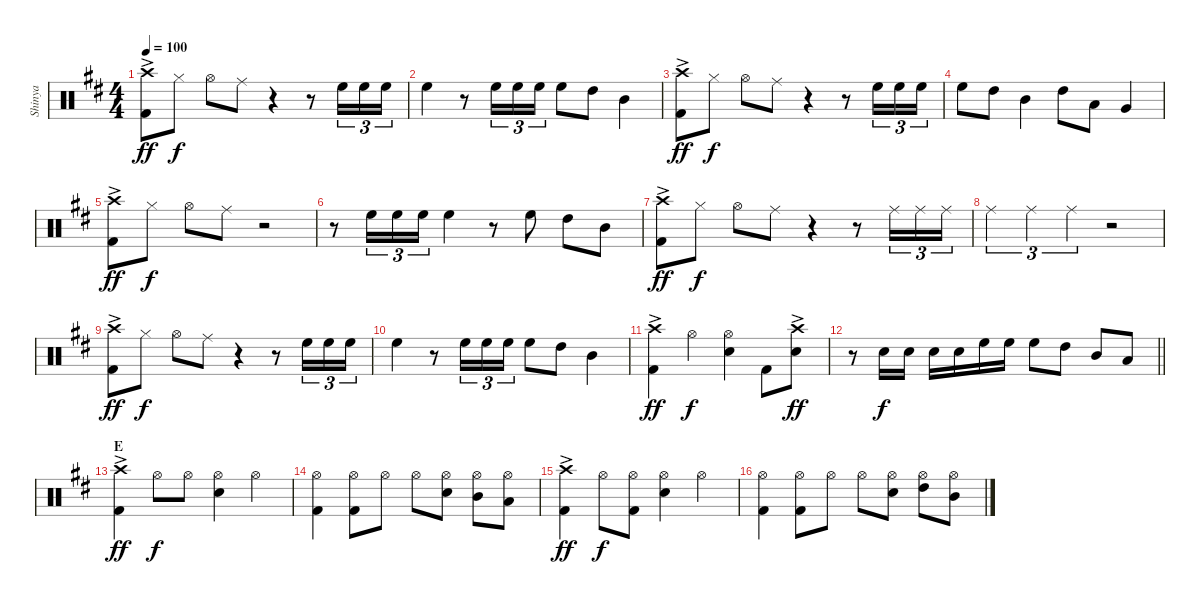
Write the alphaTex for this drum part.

\track ("Shinya" "Shinya") {instrument percussion}
\staff {score}
\articulation defaults
\ts (4 4)
\tempo 100
\clef neutral
\ks d
("Crash high (hit)"{ac} "Kick (hit) 2").8{dy ff} "Hi-Hat (closed)".8{dy f} "Hi-Hat (open)".8 "Ride (middle)".8 r.4 r.8 "High Floor Tom (hit)".16{tu (3 2)} "High Floor Tom (hit)".16{tu (3 2)} "High Floor Tom (hit)".16{tu (3 2)} |
"High Floor Tom (hit)".4 r.8 "High Floor Tom (hit)".16{tu (3 2)} "High Floor Tom (hit)".16{tu (3 2)} "High Floor Tom (hit)".16{tu (3 2)} "High Floor Tom (hit)".8 "High Tom (hit)".8 "Mid Tom (hit)".4 |
("Crash high (hit)"{ac} "Kick (hit) 2").8{dy ff} "Hi-Hat (closed)".8{dy f} "Hi-Hat (open)".8 "Ride (middle)".8 r.4 r.8 "High Floor Tom (hit)".16{tu (3 2)} "High Floor Tom (hit)".16{tu (3 2)} "High Floor Tom (hit)".16{tu (3 2)} |
"High Floor Tom (hit)".8 "High Tom (hit)".8 "Mid Tom (hit)".4 "High Tom (hit)".8 "Low Tom (hit)".8 "Very Low Tom (hit)".4 |
("Crash high (hit)"{ac} "Kick (hit) 2").8{dy ff} "Hi-Hat (closed)".8{dy f} "Hi-Hat (open)".8 "Ride (middle)".8 r.2 |
r.8 "High Floor Tom (hit)".16{tu (3 2)} "High Floor Tom (hit)".16{tu (3 2)} "High Floor Tom (hit)".16{tu (3 2)} "High Floor Tom (hit)".4 r.8 "High Floor Tom (hit)".8 "High Tom (hit)".8 "Mid Tom (hit)".8 |
("Crash high (hit)"{ac} "Kick (hit) 2").8{dy ff} "Hi-Hat (closed)".8{dy f} "Hi-Hat (open)".8 "Ride (middle)".8 r.4 r.8 "Ride (middle)".16{tu (3 2)} "Ride (middle)".16{tu (3 2)} "Ride (middle)".16{tu (3 2)} |
"Ride (middle)".4{tu (3 2)} "Ride (middle)".4{tu (3 2)} "Ride (middle)".4{tu (3 2)} r.2 |
("Crash high (hit)"{ac} "Kick (hit) 2").8{dy ff} "Hi-Hat (closed)".8{dy f} "Hi-Hat (open)".8 "Ride (middle)".8 r.4 r.8 "High Floor Tom (hit)".16{tu (3 2)} "High Floor Tom (hit)".16{tu (3 2)} "High Floor Tom (hit)".16{tu (3 2)} |
"High Floor Tom (hit)".4 r.8 "High Floor Tom (hit)".16{tu (3 2)} "High Floor Tom (hit)".16{tu (3 2)} "High Floor Tom (hit)".16{tu (3 2)} "High Floor Tom (hit)".8 "High Tom (hit)".8 "Mid Tom (hit)".4 |
("Crash high (hit)"{ac} "Kick (hit) 2").4{dy ff} "Hi-Hat (open)".4{dy f} ("Hi-Hat (open)" "Snare (hit) 2").4 "Kick (hit) 2".8 ("Crash high (hit)"{ac} "Snare (hit) 2").8{dy ff} |
\barLineRight lightlight
r.8 "Snare (hit) 2".16{dy f} "Snare (hit) 2".16 "Snare (hit) 2".16 "Snare (hit) 2".16 "High Floor Tom (hit)".16 "High Floor Tom (hit)".16 "High Floor Tom (hit)".8 "High Tom (hit)".8 "Mid Tom (hit)".8 "Low Tom (hit)".8 |
\section ("" "E")
("Crash high (hit)"{ac} "Kick (hit) 2").4{dy ff} "Hi-Hat (open)".8{dy f} "Hi-Hat (open)".8 ("Hi-Hat (open)" "Snare (hit) 2").4 "Hi-Hat (open)".4 |
("Hi-Hat (open)" "Kick (hit) 2").4 ("Hi-Hat (open)" "Kick (hit) 2").8 "Hi-Hat (open)".8 "Hi-Hat (open)".8 ("Hi-Hat (open)" "Snare (hit) 2").8 ("Hi-Hat (open)" "Mid Tom (hit)").8 ("Hi-Hat (open)" "Low Tom (hit)").8 |
("Crash high (hit)"{ac} "Kick (hit) 2").4{dy ff} "Hi-Hat (open)".8{dy f} ("Hi-Hat (open)" "Kick (hit) 2").8 ("Hi-Hat (open)" "Snare (hit) 2").4 "Hi-Hat (open)".4 |
("Hi-Hat (open)" "Kick (hit) 2").4 ("Hi-Hat (open)" "Kick (hit) 2").8 "Hi-Hat (open)".8 "Hi-Hat (open)".8 ("Hi-Hat (open)" "Snare (hit) 2").8 ("Hi-Hat (open)" "High Tom (hit)").8 ("Hi-Hat (open)" "Mid Tom (hit)").8
